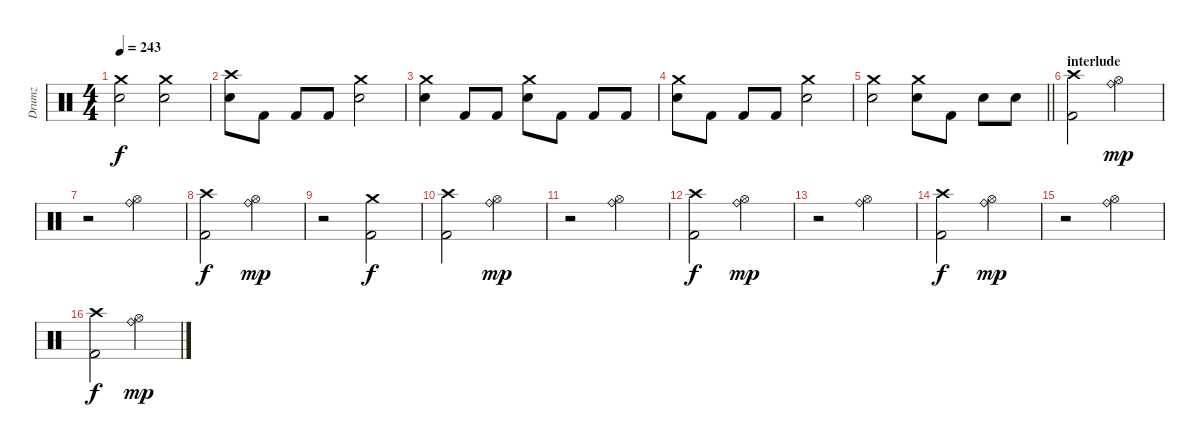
\track ("Drumz" "Drumz") {instrument percussion}
\staff {score}
\articulation defaults
\ts (4 4)
\tempo 243
\clef neutral
\ks c
("Crash medium (hit)" "Electric Snare (hit)").2{dy f} ("Crash medium (hit)" "Electric Snare (hit)").2 |
("Crash high (hit)" "Electric Snare (hit)").8 "Kick (hit) 2".8 "Kick (hit) 2".8 "Kick (hit) 2".8 ("Crash medium (hit)" "Electric Snare (hit)").2 |
("Crash medium (hit)" "Electric Snare (hit)").4 "Kick (hit) 2".8 "Kick (hit) 2".8 ("Crash medium (hit)" "Electric Snare (hit)").8 "Kick (hit) 2".8 "Kick (hit) 2".8 "Kick (hit) 2".8 |
("Crash medium (hit)" "Electric Snare (hit)").8 "Kick (hit) 2".8 "Kick (hit) 2".8 "Kick (hit) 2".8 ("Crash medium (hit)" "Electric Snare (hit)").2 |
\barLineRight lightlight
("Crash medium (hit)" "Electric Snare (hit)").2 ("Crash medium (hit)" "Electric Snare (hit)").8 "Kick (hit) 2".8 "Electric Snare (hit)".8 "Electric Snare (hit)".8 |
\section ("" "interlude")
("Crash high (hit)" "Kick (hit) 2").2 ("Ride (bell)" "Hi-Hat (open)").2{dy mp} |
r.2 ("Ride (bell)" "Hi-Hat (open)").2 |
("Crash high (hit)" "Kick (hit) 2").2{dy f} ("Ride (bell)" "Hi-Hat (open)").2{dy mp} |
r.2 ("Crash medium (hit)" "Kick (hit) 2").2{dy f} |
("Crash high (hit)" "Kick (hit) 2").2 ("Ride (bell)" "Hi-Hat (open)").2{dy mp} |
r.2 ("Ride (bell)" "Hi-Hat (open)").2 |
("Crash high (hit)" "Kick (hit) 2").2{dy f} ("Ride (bell)" "Hi-Hat (open)").2{dy mp} |
r.2 ("Ride (bell)" "Hi-Hat (open)").2 |
("Crash high (hit)" "Kick (hit) 2").2{dy f} ("Ride (bell)" "Hi-Hat (open)").2{dy mp} |
r.2 ("Ride (bell)" "Hi-Hat (open)").2 |
("Crash high (hit)" "Kick (hit) 2").2{dy f} ("Ride (bell)" "Hi-Hat (open)").2{dy mp}
